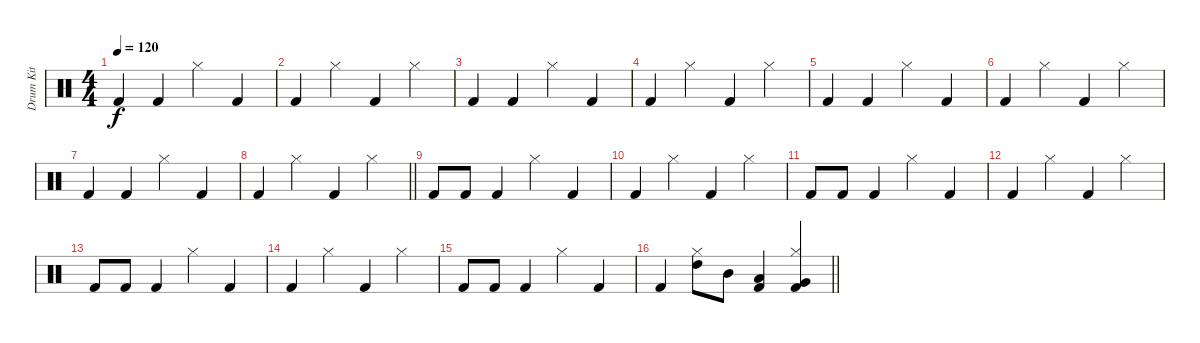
\track ("Drum Kit" "Drum Kit") {instrument percussion}
\staff {score}
\articulation defaults
\ts (4 4)
\tempo 120
\clef neutral
\ks c "Kick (hit) 2".4{dy f} "Kick (hit) 2".4 "Hi-Hat (closed)".4 "Kick (hit) 2".4
|
"Kick (hit) 2".4 "Hi-Hat (closed)".4 "Kick (hit) 2".4 "Hi-Hat (closed)".4 |
"Kick (hit) 2".4 "Kick (hit) 2".4 "Hi-Hat (closed)".4 "Kick (hit) 2".4 |
"Kick (hit) 2".4 "Hi-Hat (closed)".4 "Kick (hit) 2".4 "Hi-Hat (closed)".4 |
"Kick (hit) 2".4 "Kick (hit) 2".4 "Hi-Hat (closed)".4 "Kick (hit) 2".4 |
"Kick (hit) 2".4 "Hi-Hat (closed)".4 "Kick (hit) 2".4 "Hi-Hat (closed)".4 |
"Kick (hit) 2".4 "Kick (hit) 2".4 "Hi-Hat (closed)".4 "Kick (hit) 2".4 |
\barLineRight lightlight "Kick (hit) 2".4 "Hi-Hat (closed)".4 "Kick (hit) 2".4 "Hi-Hat (closed)".4
|
"Kick (hit) 2".8 "Kick (hit) 2".8 "Kick (hit) 2".4 "Hi-Hat (closed)".4 "Kick (hit) 2".4 |
"Kick (hit) 2".4 "Hi-Hat (closed)".4 "Kick (hit) 2".4 "Hi-Hat (closed)".4 |
"Kick (hit) 2".8 "Kick (hit) 2".8 "Kick (hit) 2".4 "Hi-Hat (closed)".4 "Kick (hit) 2".4 |
"Kick (hit) 2".4 "Hi-Hat (closed)".4 "Kick (hit) 2".4 "Hi-Hat (closed)".4 |
"Kick (hit) 2".8 "Kick (hit) 2".8 "Kick (hit) 2".4 "Hi-Hat (closed)".4 "Kick (hit) 2".4 |
"Kick (hit) 2".4 "Hi-Hat (closed)".4 "Kick (hit) 2".4 "Hi-Hat (closed)".4 |
"Kick (hit) 2".8 "Kick (hit) 2".8 "Kick (hit) 2".4 "Hi-Hat (closed)".4 "Kick (hit) 2".4 |
\barLineRight lightlight "Kick (hit) 2".4
("High Tom (hit)" "Hi-Hat (closed)").8 "Mid Tom (hit)".8 ("Low Tom (hit)" "Kick (hit) 2").4 ("Very Low Tom (hit)" "Hi-Hat (closed)" "Kick (hit) 2").4
